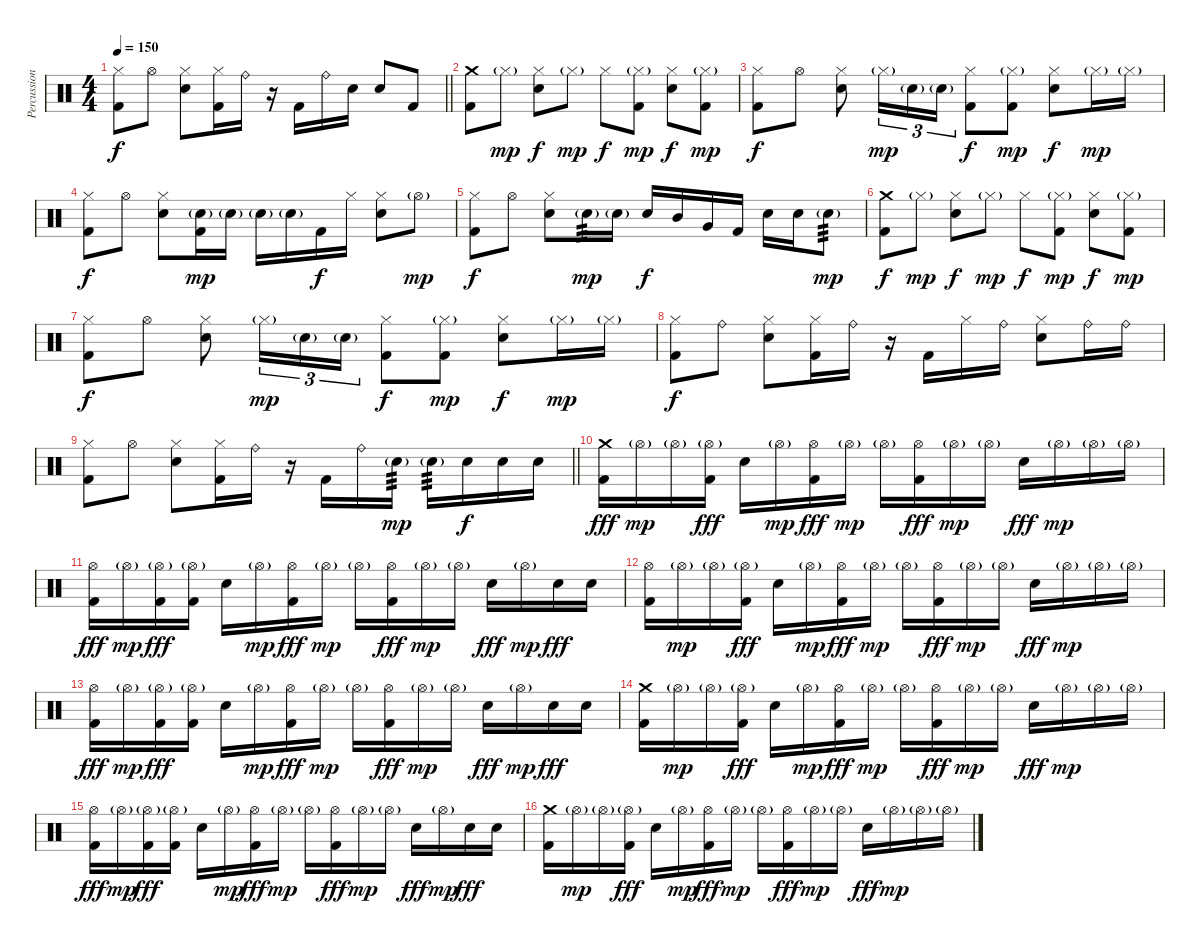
\track ("Percussion" "Percussion") {instrument percussion}
\staff {score}
\articulation defaults
\ts (4 4)
\tempo 150
\clef neutral
\barLineRight lightlight
\ks c
("Hi-Hat (closed)" "Kick (hit) 2").8{dy f} "Hi-Hat (open)".8 ("Hi-Hat (closed)" "Electric Snare (hit)").8 ("Hi-Hat (closed)" "Kick (hit) 2").16 "Ride (bell)".16 r.16 "Kick (hit) 2".16 "Ride (bell)".16 "Electric Snare (hit)".16 "Electric Snare (hit)".8 "Kick (hit) 2".8 |
\section ("" "")
("Crash medium (hit)" "Kick (hit) 2").8 "Hi-Hat (closed)"{g}.8{dy mp} ("Hi-Hat (closed)" "Electric Snare (hit)").8{dy f} "Hi-Hat (closed)"{g}.8{dy mp} "Hi-Hat (closed)".8{dy f} ("Hi-Hat (closed)"{g} "Kick (hit) 2").8{dy mp} ("Hi-Hat (closed)" "Electric Snare (hit)").8{dy f} ("Hi-Hat (closed)"{g} "Kick (hit) 2").8{dy mp} |
("Hi-Hat (closed)" "Kick (hit) 2").8{dy f} "Hi-Hat (open)".8 ("Hi-Hat (closed)" "Electric Snare (hit)").8 "Hi-Hat (closed)"{g}.16{tu (3 2) dy mp} "Electric Snare (hit)"{g}.16{tu (3 2)} "Electric Snare (hit)"{g}.16{tu (3 2)} ("Hi-Hat (closed)" "Kick (hit) 2").8{dy f} ("Hi-Hat (closed)"{g} "Kick (hit) 2").8{dy mp} ("Hi-Hat (closed)" "Electric Snare (hit)").8{dy f} "Hi-Hat (closed)"{g}.16{dy mp} "Hi-Hat (closed)"{g}.16 |
("Hi-Hat (closed)" "Kick (hit) 2").8{dy f} "Hi-Hat (open)".8 ("Hi-Hat (closed)" "Electric Snare (hit)").8 ("Electric Snare (hit)"{g} "Kick (hit) 2").16{dy mp} "Electric Snare (hit)"{g}.16 "Electric Snare (hit)"{g}.16 "Electric Snare (hit)"{g}.16 "Kick (hit) 2".16{dy f} "Hi-Hat (closed)".16 ("Hi-Hat (closed)" "Electric Snare (hit)").8 "Hi-Hat (open)"{g}.8{dy mp} |
("Hi-Hat (closed)" "Kick (hit) 2").8{dy f} "Hi-Hat (open)".8 ("Hi-Hat (closed)" "Electric Snare (hit)").8 "Electric Snare (hit)"{g}.16{tp 3 dy mp} "Electric Snare (hit)"{g}.16 "Electric Snare (hit)".16{dy f} "Mid Tom (hit)".16 "Very Low Tom (hit)".16 "Kick (hit) 2".16 "Electric Snare (hit)".16 "Electric Snare (hit)".16 "Electric Snare (hit)"{g}.8{tp 3 dy mp} |
("Crash medium (hit)" "Kick (hit) 2").8{dy f} "Hi-Hat (closed)"{g}.8{dy mp} ("Hi-Hat (closed)" "Electric Snare (hit)").8{dy f} "Hi-Hat (closed)"{g}.8{dy mp} "Hi-Hat (closed)".8{dy f} ("Hi-Hat (closed)"{g} "Kick (hit) 2").8{dy mp} ("Hi-Hat (closed)" "Electric Snare (hit)").8{dy f} ("Hi-Hat (closed)"{g} "Kick (hit) 2").8{dy mp} |
("Hi-Hat (closed)" "Kick (hit) 2").8{dy f} "Hi-Hat (open)".8 ("Hi-Hat (closed)" "Electric Snare (hit)").8 "Hi-Hat (closed)"{g}.16{tu (3 2) dy mp} "Electric Snare (hit)"{g}.16{tu (3 2)} "Electric Snare (hit)"{g}.16{tu (3 2)} ("Hi-Hat (closed)" "Kick (hit) 2").8{dy f} ("Hi-Hat (closed)"{g} "Kick (hit) 2").8{dy mp} ("Hi-Hat (closed)" "Electric Snare (hit)").8{dy f} "Hi-Hat (closed)"{g}.16{dy mp} "Hi-Hat (closed)"{g}.16 |
("Hi-Hat (closed)" "Kick (hit) 2").8{dy f} "Ride (bell)".8 ("Hi-Hat (closed)" "Electric Snare (hit)").8 ("Hi-Hat (closed)" "Kick (hit) 2").16 "Ride (bell)".16 r.16 "Kick (hit) 2".16 "Hi-Hat (closed)".16 "Ride (bell)".16 ("Hi-Hat (closed)" "Electric Snare (hit)").8 "Ride (bell)".16 "Ride (bell)".16 |
\barLineRight lightlight
("Hi-Hat (closed)" "Kick (hit) 2").8 "Hi-Hat (open)".8 ("Hi-Hat (closed)" "Electric Snare (hit)").8 ("Hi-Hat (closed)" "Kick (hit) 2").16 "Ride (bell)".16 r.16 "Kick (hit) 2".16 "Ride (bell)".16 "Electric Snare (hit)"{g}.16{tp 3 dy mp} "Electric Snare (hit)"{g}.16{tp 3} "Electric Snare (hit)".16{dy f} "Electric Snare (hit)".16 "Electric Snare (hit)".16 |
\section ("" "")
("Crash medium (hit)" "Kick (hit) 2").16{dy fff} "Hi-Hat (open)"{g}.16{dy mp} "Hi-Hat (open)"{g}.16 ("Hi-Hat (open)"{g} "Kick (hit) 2").16{dy fff} "Electric Snare (hit)".16 "Hi-Hat (open)"{g}.16{dy mp} ("Hi-Hat (open)" "Kick (hit) 2").16{dy fff} "Hi-Hat (open)"{g}.16{dy mp} "Hi-Hat (open)"{g}.16 ("Hi-Hat (open)" "Kick (hit) 2").16{dy fff} "Hi-Hat (open)"{g}.16{dy mp} "Hi-Hat (open)"{g}.16 "Electric Snare (hit)".16{dy fff} "Hi-Hat (open)"{g}.16{dy mp} "Hi-Hat (open)"{g}.16 "Hi-Hat (open)"{g}.16 |
("Hi-Hat (open)" "Kick (hit) 2").16{dy fff} "Hi-Hat (open)"{g}.16{dy mp} ("Hi-Hat (open)"{g} "Kick (hit) 2").16{dy fff} ("Hi-Hat (open)"{g} "Kick (hit) 2").16 "Electric Snare (hit)".16 "Hi-Hat (open)"{g}.16{dy mp} ("Hi-Hat (open)" "Kick (hit) 2").16{dy fff} "Hi-Hat (open)"{g}.16{dy mp} "Hi-Hat (open)"{g}.16 ("Hi-Hat (open)" "Kick (hit) 2").16{dy fff} "Hi-Hat (open)"{g}.16{dy mp} "Hi-Hat (open)"{g}.16 "Electric Snare (hit)".16{dy fff} "Hi-Hat (open)"{g}.16{dy mp} "Electric Snare (hit)".16{dy fff} "Electric Snare (hit)".16 |
("Hi-Hat (open)" "Kick (hit) 2").16 "Hi-Hat (open)"{g}.16{dy mp} "Hi-Hat (open)"{g}.16 ("Hi-Hat (open)"{g} "Kick (hit) 2").16{dy fff} "Electric Snare (hit)".16 "Hi-Hat (open)"{g}.16{dy mp} ("Hi-Hat (open)" "Kick (hit) 2").16{dy fff} "Hi-Hat (open)"{g}.16{dy mp} "Hi-Hat (open)"{g}.16 ("Hi-Hat (open)" "Kick (hit) 2").16{dy fff} "Hi-Hat (open)"{g}.16{dy mp} "Hi-Hat (open)"{g}.16 "Electric Snare (hit)".16{dy fff} "Hi-Hat (open)"{g}.16{dy mp} "Hi-Hat (open)"{g}.16 "Hi-Hat (open)"{g}.16 |
("Hi-Hat (open)" "Kick (hit) 2").16{dy fff} "Hi-Hat (open)"{g}.16{dy mp} ("Hi-Hat (open)"{g} "Kick (hit) 2").16{dy fff} ("Hi-Hat (open)"{g} "Kick (hit) 2").16 "Electric Snare (hit)".16 "Hi-Hat (open)"{g}.16{dy mp} ("Hi-Hat (open)" "Kick (hit) 2").16{dy fff} "Hi-Hat (open)"{g}.16{dy mp} "Hi-Hat (open)"{g}.16 ("Hi-Hat (open)" "Kick (hit) 2").16{dy fff} "Hi-Hat (open)"{g}.16{dy mp} "Hi-Hat (open)"{g}.16 "Electric Snare (hit)".16{dy fff} "Hi-Hat (open)"{g}.16{dy mp} "Electric Snare (hit)".16{dy fff} "Electric Snare (hit)".16 |
("Crash medium (hit)" "Kick (hit) 2").16 "Hi-Hat (open)"{g}.16{dy mp} "Hi-Hat (open)"{g}.16 ("Hi-Hat (open)"{g} "Kick (hit) 2").16{dy fff} "Electric Snare (hit)".16 "Hi-Hat (open)"{g}.16{dy mp} ("Hi-Hat (open)" "Kick (hit) 2").16{dy fff} "Hi-Hat (open)"{g}.16{dy mp} "Hi-Hat (open)"{g}.16 ("Hi-Hat (open)" "Kick (hit) 2").16{dy fff} "Hi-Hat (open)"{g}.16{dy mp} "Hi-Hat (open)"{g}.16 "Electric Snare (hit)".16{dy fff} "Hi-Hat (open)"{g}.16{dy mp} "Hi-Hat (open)"{g}.16 "Hi-Hat (open)"{g}.16 |
("Hi-Hat (open)" "Kick (hit) 2").16{dy fff} "Hi-Hat (open)"{g}.16{dy mp} ("Hi-Hat (open)"{g} "Kick (hit) 2").16{dy fff} ("Hi-Hat (open)"{g} "Kick (hit) 2").16 "Electric Snare (hit)".16 "Hi-Hat (open)"{g}.16{dy mp} ("Hi-Hat (open)" "Kick (hit) 2").16{dy fff} "Hi-Hat (open)"{g}.16{dy mp} "Hi-Hat (open)"{g}.16 ("Hi-Hat (open)" "Kick (hit) 2").16{dy fff} "Hi-Hat (open)"{g}.16{dy mp} "Hi-Hat (open)"{g}.16 "Electric Snare (hit)".16{dy fff} "Hi-Hat (open)"{g}.16{dy mp} "Electric Snare (hit)".16{dy fff} "Electric Snare (hit)".16 |
("Crash medium (hit)" "Kick (hit) 2").16 "Hi-Hat (open)"{g}.16{dy mp} "Hi-Hat (open)"{g}.16 ("Hi-Hat (open)"{g} "Kick (hit) 2").16{dy fff} "Electric Snare (hit)".16 "Hi-Hat (open)"{g}.16{dy mp} ("Hi-Hat (open)" "Kick (hit) 2").16{dy fff} "Hi-Hat (open)"{g}.16{dy mp} "Hi-Hat (open)"{g}.16 ("Hi-Hat (open)" "Kick (hit) 2").16{dy fff} "Hi-Hat (open)"{g}.16{dy mp} "Hi-Hat (open)"{g}.16 "Electric Snare (hit)".16{dy fff} "Hi-Hat (open)"{g}.16{dy mp} "Hi-Hat (open)"{g}.16 "Hi-Hat (open)"{g}.16
